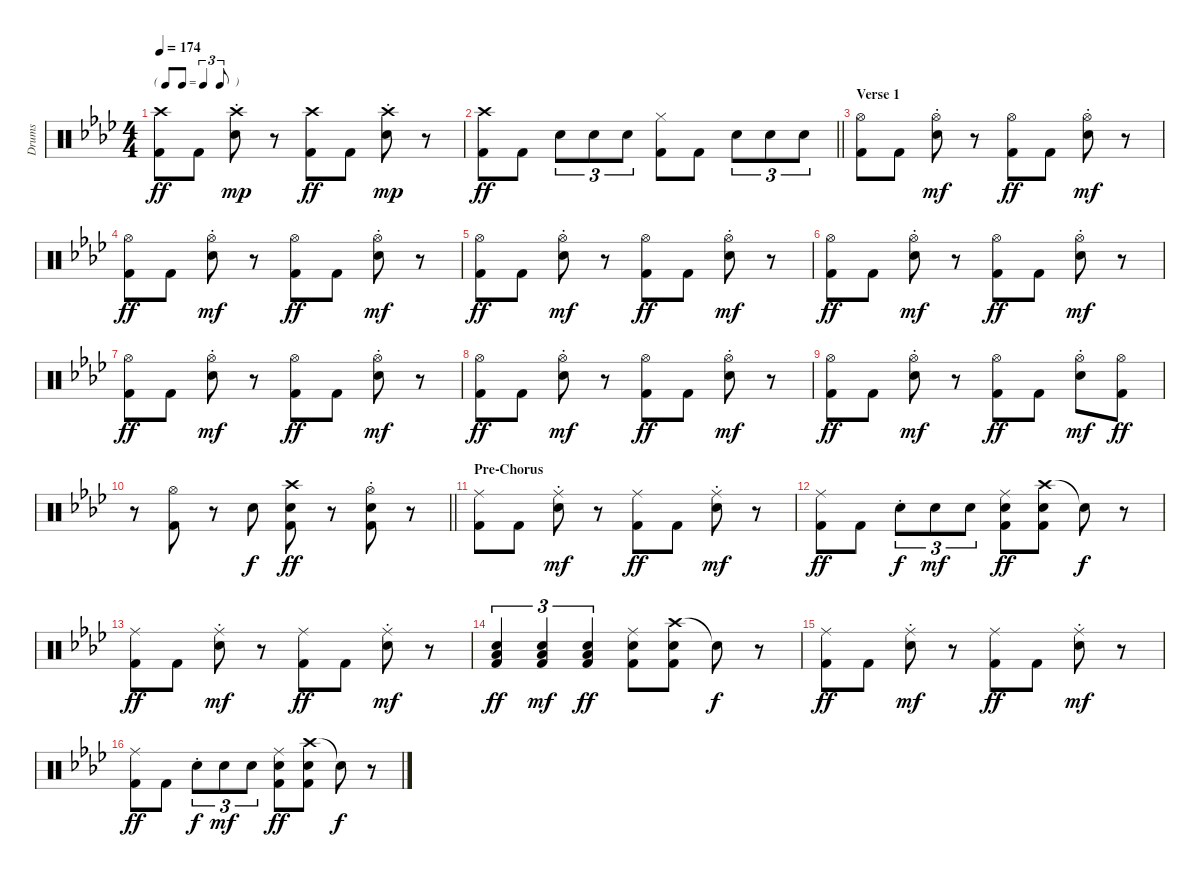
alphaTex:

\track ("Drums" "Drums") {instrument percussion}
\staff {score}
\articulation defaults
\ts (4 4)
\tf triplet8th
\tempo 174
\clef neutral
\ks ab
("Crash high (hit)" "Kick (hit) 2").8{dy ff} "Kick (hit) 2".8 ("Crash high (hit)" "Snare (hit) 2"{st}).8{dy mp} r.8 ("Crash high (hit)" "Kick (hit) 2").8{dy ff} "Kick (hit) 2".8 ("Crash high (hit)" "Snare (hit) 2"{st}).8{dy mp} r.8 |
\barLineRight lightlight
("Crash high (hit)" "Kick (hit) 2").8{dy ff} "Kick (hit) 2".8 "Snare (hit) 2".8{tu (3 2)} "Snare (hit) 2".8{tu (3 2)} "Snare (hit) 2".8{tu (3 2)} ("Hi-Hat (closed)" "Kick (hit) 2").8 "Kick (hit) 2".8 "Snare (hit) 2".8{tu (3 2)} "Snare (hit) 2".8{tu (3 2)} "Snare (hit) 2".8{tu (3 2)} |
\section ("" "Verse 1")
("Hi-Hat (open)" "Kick (hit) 2").8 "Kick (hit) 2".8 ("Hi-Hat (open)" "Snare (hit) 2"{st}).8{dy mf} r.8 ("Hi-Hat (open)" "Kick (hit) 2").8{dy ff} "Kick (hit) 2".8 ("Hi-Hat (open)" "Snare (hit) 2"{st}).8{dy mf} r.8 |
("Hi-Hat (open)" "Kick (hit) 2").8{dy ff} "Kick (hit) 2".8 ("Hi-Hat (open)" "Snare (hit) 2"{st}).8{dy mf} r.8 ("Hi-Hat (open)" "Kick (hit) 2").8{dy ff} "Kick (hit) 2".8 ("Hi-Hat (open)" "Snare (hit) 2"{st}).8{dy mf} r.8 |
("Hi-Hat (open)" "Kick (hit) 2").8{dy ff} "Kick (hit) 2".8 ("Hi-Hat (open)" "Snare (hit) 2"{st}).8{dy mf} r.8 ("Hi-Hat (open)" "Kick (hit) 2").8{dy ff} "Kick (hit) 2".8 ("Hi-Hat (open)" "Snare (hit) 2"{st}).8{dy mf} r.8 |
("Hi-Hat (open)" "Kick (hit) 2").8{dy ff} "Kick (hit) 2".8 ("Hi-Hat (open)" "Snare (hit) 2"{st}).8{dy mf} r.8 ("Hi-Hat (open)" "Kick (hit) 2").8{dy ff} "Kick (hit) 2".8 ("Hi-Hat (open)" "Snare (hit) 2"{st}).8{dy mf} r.8 |
("Hi-Hat (open)" "Kick (hit) 2").8{dy ff} "Kick (hit) 2".8 ("Hi-Hat (open)" "Snare (hit) 2"{st}).8{dy mf} r.8 ("Hi-Hat (open)" "Kick (hit) 2").8{dy ff} "Kick (hit) 2".8 ("Hi-Hat (open)" "Snare (hit) 2"{st}).8{dy mf} r.8 |
("Hi-Hat (open)" "Kick (hit) 2").8{dy ff} "Kick (hit) 2".8 ("Hi-Hat (open)" "Snare (hit) 2"{st}).8{dy mf} r.8 ("Hi-Hat (open)" "Kick (hit) 2").8{dy ff} "Kick (hit) 2".8 ("Hi-Hat (open)" "Snare (hit) 2"{st}).8{dy mf} r.8 |
("Hi-Hat (open)" "Kick (hit) 2").8{dy ff} "Kick (hit) 2".8 ("Hi-Hat (open)" "Snare (hit) 2"{st}).8{dy mf} r.8 ("Hi-Hat (open)" "Kick (hit) 2").8{dy ff} "Kick (hit) 2".8 ("Hi-Hat (open)" "Snare (hit) 2"{st}).8{dy mf} ("Hi-Hat (open)" "Kick (hit) 2").8{dy ff} |
\barLineRight lightlight
r.8 ("Hi-Hat (open)" "Kick (hit) 2").8 r.8 "Snare (hit) 2".8{dy f} ("Crash high (hit)" "Snare (hit) 2" "Kick (hit) 2").8{dy ff} r.8 ("Hi-Hat (open)" "Snare (hit) 2"{st} "Kick (hit) 2").8 r.8 |
\section ("" "Pre-Chorus")
("Ride (middle)" "Kick (hit) 2").8 "Kick (hit) 2".8 ("Ride (middle)" "Snare (hit) 2"{st}).8{dy mf} r.8 ("Ride (middle)" "Kick (hit) 2").8{dy ff} "Kick (hit) 2".8 ("Ride (middle)" "Snare (hit) 2"{st}).8{dy mf} r.8 |
("Ride (middle)" "Kick (hit) 2").8{dy ff} "Kick (hit) 2".8 "Snare (hit) 2"{st}.8{tu (3 2) dy f} "Snare (hit) 2".8{tu (3 2) dy mf} "Snare (hit) 2".8{tu (3 2)} ("Ride (middle)" "Snare (hit) 2" "Kick (hit) 2").8{dy ff} ("Crash high (hit)" "Snare (hit) 2" "Kick (hit) 2").8 "Snare (hit)"{t}.8{dy f} r.8 |
("Ride (middle)" "Kick (hit) 2").8{dy ff} "Kick (hit) 2".8 ("Ride (middle)" "Snare (hit) 2"{st}).8{dy mf} r.8 ("Ride (middle)" "Kick (hit) 2").8{dy ff} "Kick (hit) 2".8 ("Ride (middle)" "Snare (hit) 2"{st}).8{dy mf} r.8 |
("Low Tom (hit)" "Snare (hit) 2" "Kick (hit) 2").4{tu (3 2) dy ff} ("Low Tom (hit)" "Snare (hit) 2" "Kick (hit) 2").4{tu (3 2) dy mf} ("Low Tom (hit)" "Snare (hit) 2" "Kick (hit) 2").4{tu (3 2) dy ff} ("Ride (middle)" "Snare (hit) 2" "Kick (hit) 2").8 ("Crash high (hit)" "Snare (hit) 2" "Kick (hit) 2").8 "Snare (hit)"{t}.8{dy f} r.8 |
("Ride (middle)" "Kick (hit) 2").8{dy ff} "Kick (hit) 2".8 ("Ride (middle)" "Snare (hit) 2"{st}).8{dy mf} r.8 ("Ride (middle)" "Kick (hit) 2").8{dy ff} "Kick (hit) 2".8 ("Ride (middle)" "Snare (hit) 2"{st}).8{dy mf} r.8 |
("Ride (middle)" "Kick (hit) 2").8{dy ff} "Kick (hit) 2".8 "Snare (hit) 2"{st}.8{tu (3 2) dy f} "Snare (hit) 2".8{tu (3 2) dy mf} "Snare (hit) 2".8{tu (3 2)} ("Ride (middle)" "Snare (hit) 2" "Kick (hit) 2").8{dy ff} ("Crash high (hit)" "Snare (hit) 2" "Kick (hit) 2").8 "Snare (hit)"{t}.8{dy f} r.8
